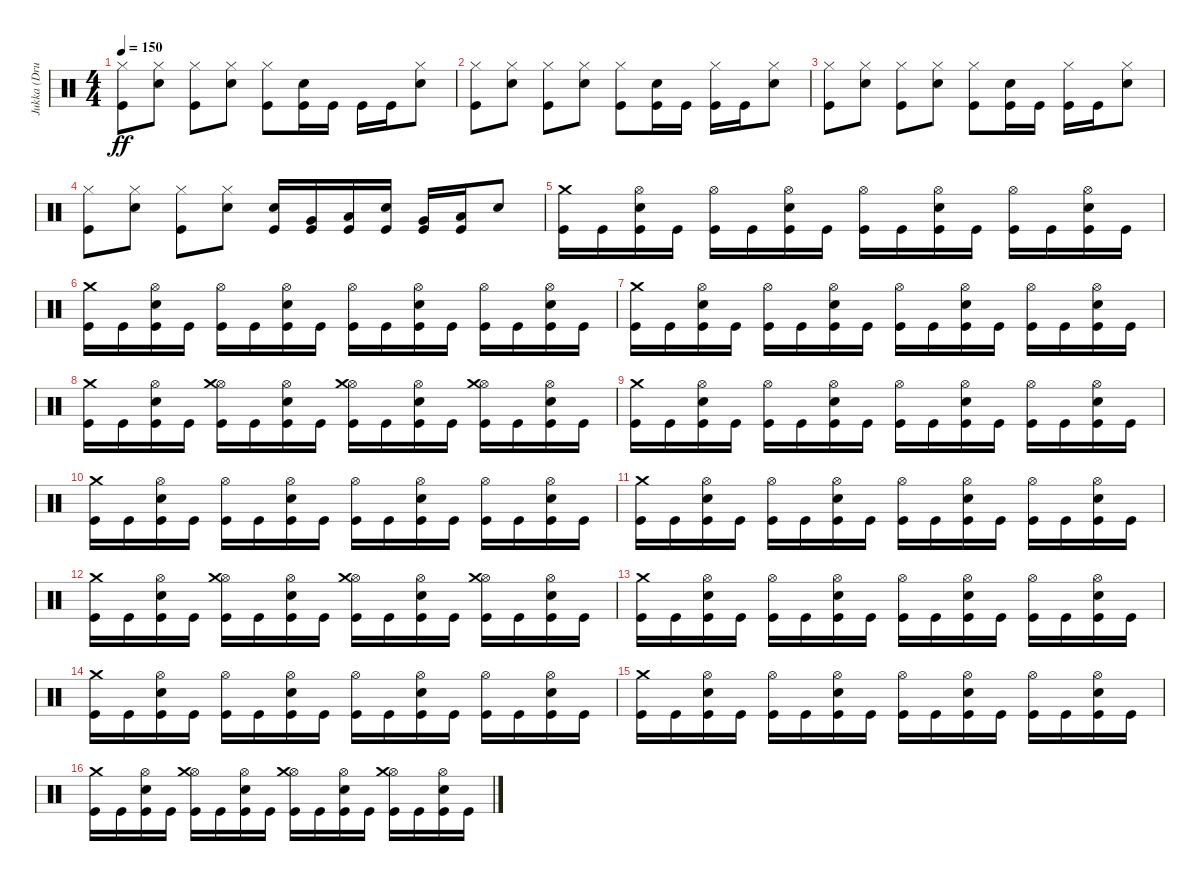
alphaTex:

\track ("Jukka (Drums)" "Jukka (Dru") {instrument percussion}
\staff {score}
\articulation defaults
\ts (4 4)
\tempo 150
\clef neutral
\ks c
("Kick (hit)" "Hi-Hat (closed)").8{dy ff} ("Electric Snare (hit)" "Hi-Hat (closed)").8 ("Kick (hit)" "Hi-Hat (closed)").8 ("Electric Snare (hit)" "Hi-Hat (closed)").8 ("Kick (hit)" "Hi-Hat (closed)").8 ("Kick (hit)" "Electric Snare (hit)").16 "Kick (hit)".16 "Kick (hit)".16 "Kick (hit)".16 ("Electric Snare (hit)" "Hi-Hat (closed)").8 |
("Kick (hit)" "Hi-Hat (closed)").8 ("Electric Snare (hit)" "Hi-Hat (closed)").8 ("Kick (hit)" "Hi-Hat (closed)").8 ("Electric Snare (hit)" "Hi-Hat (closed)").8 ("Kick (hit)" "Hi-Hat (closed)").8 ("Kick (hit)" "Electric Snare (hit)").16 "Kick (hit)".16 ("Kick (hit)" "Hi-Hat (closed)").16 "Kick (hit)".16 ("Electric Snare (hit)" "Hi-Hat (closed)").8 |
("Kick (hit)" "Hi-Hat (closed)").8 ("Electric Snare (hit)" "Hi-Hat (closed)").8 ("Kick (hit)" "Hi-Hat (closed)").8 ("Electric Snare (hit)" "Hi-Hat (closed)").8 ("Kick (hit)" "Hi-Hat (closed)").8 ("Kick (hit)" "Electric Snare (hit)").16 "Kick (hit)".16 ("Kick (hit)" "Hi-Hat (closed)").16 "Kick (hit)".16 ("Electric Snare (hit)" "Hi-Hat (closed)").8 |
("Kick (hit)" "Hi-Hat (closed)").8 ("Electric Snare (hit)" "Hi-Hat (closed)").8 ("Kick (hit)" "Hi-Hat (closed)").8 ("Electric Snare (hit)" "Hi-Hat (closed)").8 ("Kick (hit)" "Electric Snare (hit)").16 ("Kick (hit)" "Very Low Tom (hit)").16 ("Kick (hit)" "Low Floor Tom (hit)").16 ("Kick (hit)" "Electric Snare (hit)").16 ("Kick (hit)" "Very Low Tom (hit)").16 ("Kick (hit)" "Low Floor Tom (hit)").16 "Electric Snare (hit)".8 |
("Kick (hit)" "Crash medium (hit)").16 "Kick (hit)".16 ("Kick (hit)" "Electric Snare (hit)" "Hi-Hat (open)").16 "Kick (hit)".16 ("Kick (hit)" "Hi-Hat (open)").16 "Kick (hit)".16 ("Kick (hit)" "Electric Snare (hit)" "Hi-Hat (open)").16 "Kick (hit)".16 ("Kick (hit)" "Hi-Hat (open)").16 "Kick (hit)".16 ("Kick (hit)" "Electric Snare (hit)" "Hi-Hat (open)").16 "Kick (hit)".16 ("Kick (hit)" "Hi-Hat (open)").16 "Kick (hit)".16 ("Kick (hit)" "Electric Snare (hit)" "Hi-Hat (open)").16 "Kick (hit)".16 |
("Kick (hit)" "Crash medium (hit)").16 "Kick (hit)".16 ("Kick (hit)" "Electric Snare (hit)" "Hi-Hat (open)").16 "Kick (hit)".16 ("Kick (hit)" "Hi-Hat (open)").16 "Kick (hit)".16 ("Kick (hit)" "Electric Snare (hit)" "Hi-Hat (open)").16 "Kick (hit)".16 ("Kick (hit)" "Hi-Hat (open)").16 "Kick (hit)".16 ("Kick (hit)" "Electric Snare (hit)" "Hi-Hat (open)").16 "Kick (hit)".16 ("Kick (hit)" "Hi-Hat (open)").16 "Kick (hit)".16 ("Kick (hit)" "Electric Snare (hit)" "Hi-Hat (open)").16 "Kick (hit)".16 |
("Kick (hit)" "Crash medium (hit)").16 "Kick (hit)".16 ("Kick (hit)" "Electric Snare (hit)" "Hi-Hat (open)").16 "Kick (hit)".16 ("Kick (hit)" "Hi-Hat (open)").16 "Kick (hit)".16 ("Kick (hit)" "Electric Snare (hit)" "Hi-Hat (open)").16 "Kick (hit)".16 ("Kick (hit)" "Hi-Hat (open)").16 "Kick (hit)".16 ("Kick (hit)" "Electric Snare (hit)" "Hi-Hat (open)").16 "Kick (hit)".16 ("Kick (hit)" "Hi-Hat (open)").16 "Kick (hit)".16 ("Kick (hit)" "Electric Snare (hit)" "Hi-Hat (open)").16 "Kick (hit)".16 |
("Kick (hit)" "Crash medium (hit)").16 "Kick (hit)".16 ("Kick (hit)" "Electric Snare (hit)" "Hi-Hat (open)").16 "Kick (hit)".16 ("Kick (hit)" "Hi-Hat (open)" "Crash medium (hit)").16 "Kick (hit)".16 ("Kick (hit)" "Electric Snare (hit)" "Hi-Hat (open)").16 "Kick (hit)".16 ("Kick (hit)" "Hi-Hat (open)" "Crash medium (hit)").16 "Kick (hit)".16 ("Kick (hit)" "Electric Snare (hit)" "Hi-Hat (open)").16 "Kick (hit)".16 ("Kick (hit)" "Hi-Hat (open)" "Crash medium (hit)").16 "Kick (hit)".16 ("Kick (hit)" "Electric Snare (hit)" "Hi-Hat (open)").16 "Kick (hit)".16 |
("Kick (hit)" "Crash medium (hit)").16 "Kick (hit)".16 ("Kick (hit)" "Electric Snare (hit)" "Hi-Hat (open)").16 "Kick (hit)".16 ("Kick (hit)" "Hi-Hat (open)").16 "Kick (hit)".16 ("Kick (hit)" "Electric Snare (hit)" "Hi-Hat (open)").16 "Kick (hit)".16 ("Kick (hit)" "Hi-Hat (open)").16 "Kick (hit)".16 ("Kick (hit)" "Electric Snare (hit)" "Hi-Hat (open)").16 "Kick (hit)".16 ("Kick (hit)" "Hi-Hat (open)").16 "Kick (hit)".16 ("Kick (hit)" "Electric Snare (hit)" "Hi-Hat (open)").16 "Kick (hit)".16 |
("Kick (hit)" "Crash medium (hit)").16 "Kick (hit)".16 ("Kick (hit)" "Electric Snare (hit)" "Hi-Hat (open)").16 "Kick (hit)".16 ("Kick (hit)" "Hi-Hat (open)").16 "Kick (hit)".16 ("Kick (hit)" "Electric Snare (hit)" "Hi-Hat (open)").16 "Kick (hit)".16 ("Kick (hit)" "Hi-Hat (open)").16 "Kick (hit)".16 ("Kick (hit)" "Electric Snare (hit)" "Hi-Hat (open)").16 "Kick (hit)".16 ("Kick (hit)" "Hi-Hat (open)").16 "Kick (hit)".16 ("Kick (hit)" "Electric Snare (hit)" "Hi-Hat (open)").16 "Kick (hit)".16 |
("Kick (hit)" "Crash medium (hit)").16 "Kick (hit)".16 ("Kick (hit)" "Electric Snare (hit)" "Hi-Hat (open)").16 "Kick (hit)".16 ("Kick (hit)" "Hi-Hat (open)").16 "Kick (hit)".16 ("Kick (hit)" "Electric Snare (hit)" "Hi-Hat (open)").16 "Kick (hit)".16 ("Kick (hit)" "Hi-Hat (open)").16 "Kick (hit)".16 ("Kick (hit)" "Electric Snare (hit)" "Hi-Hat (open)").16 "Kick (hit)".16 ("Kick (hit)" "Hi-Hat (open)").16 "Kick (hit)".16 ("Kick (hit)" "Electric Snare (hit)" "Hi-Hat (open)").16 "Kick (hit)".16 |
("Kick (hit)" "Crash medium (hit)").16 "Kick (hit)".16 ("Kick (hit)" "Electric Snare (hit)" "Hi-Hat (open)").16 "Kick (hit)".16 ("Kick (hit)" "Hi-Hat (open)" "Crash medium (hit)").16 "Kick (hit)".16 ("Kick (hit)" "Electric Snare (hit)" "Hi-Hat (open)").16 "Kick (hit)".16 ("Kick (hit)" "Hi-Hat (open)" "Crash medium (hit)").16 "Kick (hit)".16 ("Kick (hit)" "Electric Snare (hit)" "Hi-Hat (open)").16 "Kick (hit)".16 ("Kick (hit)" "Hi-Hat (open)" "Crash medium (hit)").16 "Kick (hit)".16 ("Kick (hit)" "Electric Snare (hit)" "Hi-Hat (open)").16 "Kick (hit)".16 |
("Kick (hit)" "Crash medium (hit)").16 "Kick (hit)".16 ("Kick (hit)" "Electric Snare (hit)" "Hi-Hat (open)").16 "Kick (hit)".16 ("Kick (hit)" "Hi-Hat (open)").16 "Kick (hit)".16 ("Kick (hit)" "Electric Snare (hit)" "Hi-Hat (open)").16 "Kick (hit)".16 ("Kick (hit)" "Hi-Hat (open)").16 "Kick (hit)".16 ("Kick (hit)" "Electric Snare (hit)" "Hi-Hat (open)").16 "Kick (hit)".16 ("Kick (hit)" "Hi-Hat (open)").16 "Kick (hit)".16 ("Kick (hit)" "Electric Snare (hit)" "Hi-Hat (open)").16 "Kick (hit)".16 |
("Kick (hit)" "Crash medium (hit)").16 "Kick (hit)".16 ("Kick (hit)" "Electric Snare (hit)" "Hi-Hat (open)").16 "Kick (hit)".16 ("Kick (hit)" "Hi-Hat (open)").16 "Kick (hit)".16 ("Kick (hit)" "Electric Snare (hit)" "Hi-Hat (open)").16 "Kick (hit)".16 ("Kick (hit)" "Hi-Hat (open)").16 "Kick (hit)".16 ("Kick (hit)" "Electric Snare (hit)" "Hi-Hat (open)").16 "Kick (hit)".16 ("Kick (hit)" "Hi-Hat (open)").16 "Kick (hit)".16 ("Kick (hit)" "Electric Snare (hit)" "Hi-Hat (open)").16 "Kick (hit)".16 |
("Kick (hit)" "Crash medium (hit)").16 "Kick (hit)".16 ("Kick (hit)" "Electric Snare (hit)" "Hi-Hat (open)").16 "Kick (hit)".16 ("Kick (hit)" "Hi-Hat (open)").16 "Kick (hit)".16 ("Kick (hit)" "Electric Snare (hit)" "Hi-Hat (open)").16 "Kick (hit)".16 ("Kick (hit)" "Hi-Hat (open)").16 "Kick (hit)".16 ("Kick (hit)" "Electric Snare (hit)" "Hi-Hat (open)").16 "Kick (hit)".16 ("Kick (hit)" "Hi-Hat (open)").16 "Kick (hit)".16 ("Kick (hit)" "Electric Snare (hit)" "Hi-Hat (open)").16 "Kick (hit)".16 |
("Kick (hit)" "Crash medium (hit)").16 "Kick (hit)".16 ("Kick (hit)" "Electric Snare (hit)" "Hi-Hat (open)").16 "Kick (hit)".16 ("Kick (hit)" "Hi-Hat (open)" "Crash medium (hit)").16 "Kick (hit)".16 ("Kick (hit)" "Electric Snare (hit)" "Hi-Hat (open)").16 "Kick (hit)".16 ("Kick (hit)" "Hi-Hat (open)" "Crash medium (hit)").16 "Kick (hit)".16 ("Kick (hit)" "Electric Snare (hit)" "Hi-Hat (open)").16 "Kick (hit)".16 ("Kick (hit)" "Hi-Hat (open)" "Crash medium (hit)").16 "Kick (hit)".16 ("Kick (hit)" "Electric Snare (hit)" "Hi-Hat (open)").16 "Kick (hit)".16
